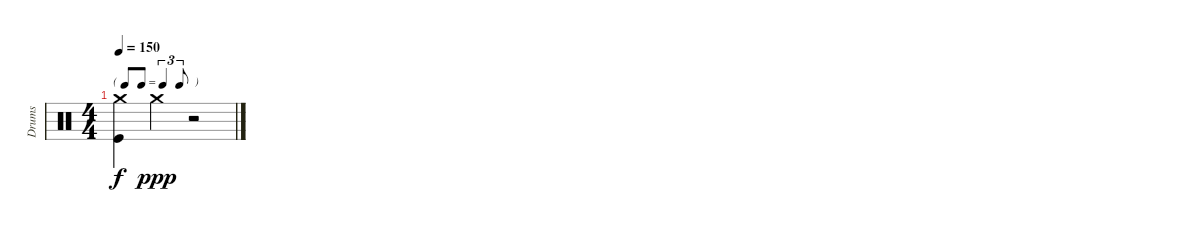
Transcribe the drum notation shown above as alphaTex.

\track ("Drums" "Drums") {instrument percussion}
\staff {score}
\articulation defaults
\ts (4 4)
\tf triplet8th
\tempo 150
\clef neutral
\ks c
("Crash medium (hit)" "Kick (hit)").4{dy f} "Crash medium (hit)".4{dy ppp} r.2
